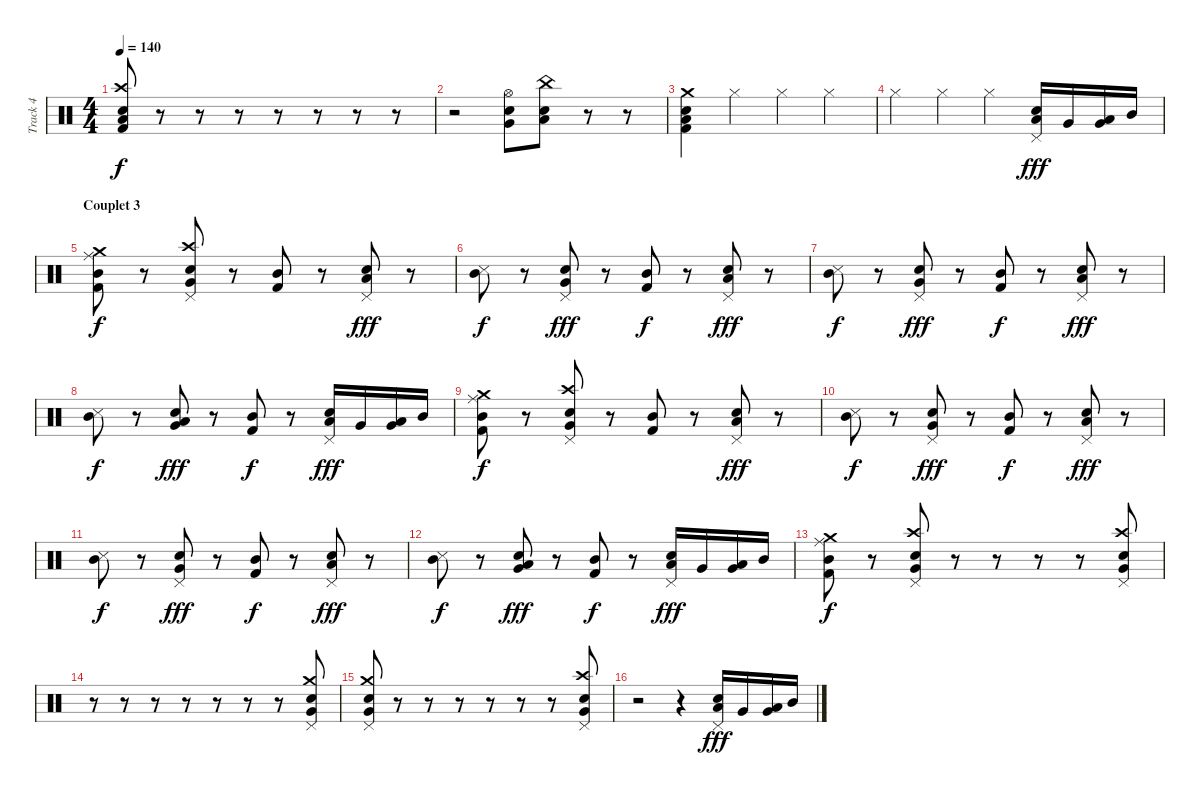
\track ("Track 4" "Track 4") {instrument percussion}
\staff {score}
\articulation defaults
\ts (4 4)
\tempo 140
\clef neutral
\ks c
("Low Tom (hit)" "Snare (hit) 2" "Crash high (hit)" "Kick (hit) 2").8{dy f} r.8 r.8 r.8 r.8 r.8 r.8 r.8 |
r.2 ("Very Low Tom (hit)" "Electric Snare (hit)" "Hi-Hat (open)").8 ("Low Floor Tom (hit)" "Snare (hit) 2" "China (hit)").8 r.8 r.8 |
("Low Tom (hit)" "Kick (hit) 2" "Snare (hit) 2" "Crash medium (hit)").4 "Hi-Hat (closed)".4 "Hi-Hat (closed)".4 "Hi-Hat (closed)".4 |
"Hi-Hat (closed)".4 "Hi-Hat (closed)".4 "Hi-Hat (closed)".4 ("Low Tom (hit)" "Pedal Hi-Hat (hit)" "Electric Snare (hit)").16{dy fff} "Very Low Tom (hit)".16 ("Very Low Tom (hit)" "Low Tom (hit)").16 "Mid Tom (hit)".16 |
\section ("" "Couplet 3")
("Mid Tom (hit)" "Kick (hit) 2" "Ride (middle)" "Crash medium (hit)").8{dy f} r.8 ("Pedal Hi-Hat (hit)" "Snare (hit) 2" "Very Low Tom (hit)" "Crash high (hit)").8 r.8 ("Mid Tom (hit)" "Kick (hit) 2").8 r.8 ("Low Tom (hit)" "Electric Snare (hit)" "Pedal Hi-Hat (hit)").8{dy fff} r.8 |
("Mid Tom (hit)" "Snare (side stick) 3").8{dy f} r.8 ("Pedal Hi-Hat (hit)" "Snare (hit) 2" "Very Low Tom (hit)").8{dy fff} r.8 ("Mid Tom (hit)" "Kick (hit) 2").8{dy f} r.8 ("Low Tom (hit)" "Electric Snare (hit)" "Pedal Hi-Hat (hit)").8{dy fff} r.8 |
("Mid Tom (hit)" "Snare (side stick) 3").8{dy f} r.8 ("Pedal Hi-Hat (hit)" "Snare (hit) 2" "Very Low Tom (hit)").8{dy fff} r.8 ("Mid Tom (hit)" "Kick (hit) 2").8{dy f} r.8 ("Low Tom (hit)" "Electric Snare (hit)" "Pedal Hi-Hat (hit)").8{dy fff} r.8 |
("Mid Tom (hit)" "Snare (side stick) 3").8{dy f} r.8 ("Snare (hit) 2" "Low Tom (hit)" "Very Low Tom (hit)").8{dy fff} r.8 ("Mid Tom (hit)" "Kick (hit) 2").8{dy f} r.8 ("Low Tom (hit)" "Pedal Hi-Hat (hit)" "Electric Snare (hit)").16{dy fff} "Very Low Tom (hit)".16 ("Very Low Tom (hit)" "Low Tom (hit)").16 "Mid Tom (hit)".16 |
("Mid Tom (hit)" "Kick (hit) 2" "Ride (middle)" "Crash medium (hit)").8{dy f} r.8 ("Pedal Hi-Hat (hit)" "Snare (hit) 2" "Very Low Tom (hit)" "Crash high (hit)").8 r.8 ("Mid Tom (hit)" "Kick (hit) 2").8 r.8 ("Low Tom (hit)" "Electric Snare (hit)" "Pedal Hi-Hat (hit)").8{dy fff} r.8 |
("Mid Tom (hit)" "Snare (side stick) 3").8{dy f} r.8 ("Pedal Hi-Hat (hit)" "Snare (hit) 2" "Very Low Tom (hit)").8{dy fff} r.8 ("Mid Tom (hit)" "Kick (hit) 2").8{dy f} r.8 ("Low Tom (hit)" "Electric Snare (hit)" "Pedal Hi-Hat (hit)").8{dy fff} r.8 |
("Mid Tom (hit)" "Snare (side stick) 3").8{dy f} r.8 ("Pedal Hi-Hat (hit)" "Snare (hit) 2" "Very Low Tom (hit)").8{dy fff} r.8 ("Mid Tom (hit)" "Kick (hit) 2").8{dy f} r.8 ("Low Tom (hit)" "Electric Snare (hit)" "Pedal Hi-Hat (hit)").8{dy fff} r.8 |
("Mid Tom (hit)" "Snare (side stick) 3").8{dy f} r.8 ("Snare (hit) 2" "Low Tom (hit)" "Very Low Tom (hit)").8{dy fff} r.8 ("Mid Tom (hit)" "Kick (hit) 2").8{dy f} r.8 ("Low Tom (hit)" "Pedal Hi-Hat (hit)" "Electric Snare (hit)").16{dy fff} "Very Low Tom (hit)".16 ("Very Low Tom (hit)" "Low Tom (hit)").16 "Mid Tom (hit)".16 |
("Mid Tom (hit)" "Kick (hit) 2" "Ride (middle)" "Crash medium (hit)").8{dy f} r.8 ("Pedal Hi-Hat (hit)" "Snare (hit) 2" "Very Low Tom (hit)" "Crash high (hit)").8 r.8 r.8 r.8 r.8 ("Pedal Hi-Hat (hit)" "Snare (hit) 2" "Very Low Tom (hit)" "Crash high (hit)").8 |
r.8 r.8 r.8 r.8 r.8 r.8 r.8 ("Pedal Hi-Hat (hit)" "Snare (hit) 2" "Very Low Tom (hit)" "Crash medium (hit)").8 |
("Pedal Hi-Hat (hit)" "Snare (hit) 2" "Very Low Tom (hit)" "Crash medium (hit)").8 r.8 r.8 r.8 r.8 r.8 r.8 ("Pedal Hi-Hat (hit)" "Snare (hit) 2" "Very Low Tom (hit)" "Crash high (hit)").8 |
r.2 r.4 ("Low Tom (hit)" "Pedal Hi-Hat (hit)" "Electric Snare (hit)").16{dy fff} "Very Low Tom (hit)".16 ("Very Low Tom (hit)" "Low Tom (hit)").16 "Mid Tom (hit)".16
